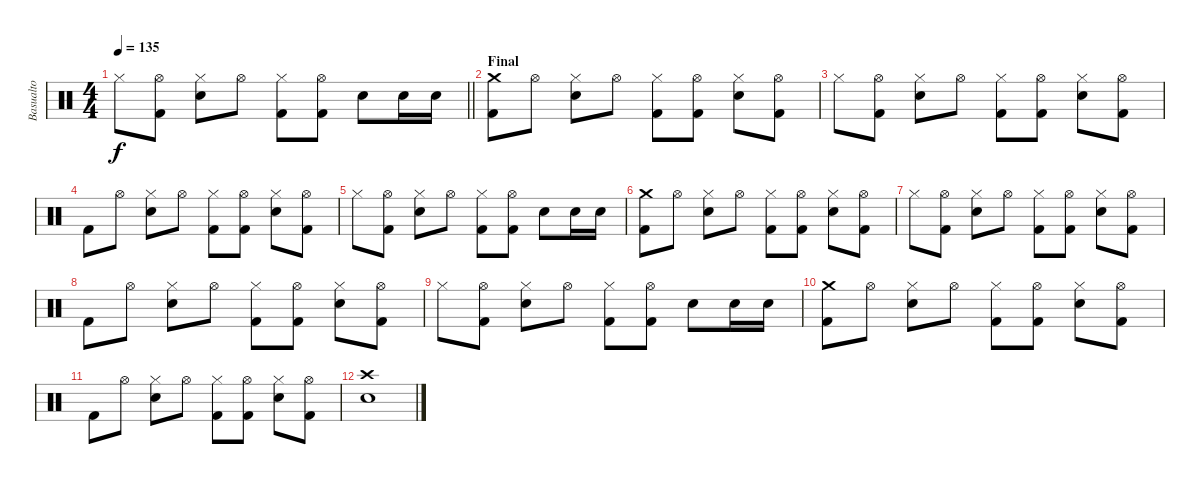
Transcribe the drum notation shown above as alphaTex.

\track ("Basualto" "Basualto") {instrument percussion}
\staff {score}
\articulation defaults
\ts (4 4)
\tempo 135
\clef neutral
\barLineRight lightlight
\ks c "Hi-Hat (closed)".8{dy f}
("Hi-Hat (open)" "Kick (hit) 2").8 ("Hi-Hat (closed)" "Snare (hit) 2").8 "Hi-Hat (open)".8 ("Hi-Hat (closed)" "Kick (hit) 2").8 ("Hi-Hat (open)" "Kick (hit) 2").8 "Snare (hit) 2".8 "Snare (hit) 2".16 "Snare (hit) 2".16 |
\section ("" "Final")
("Crash medium (hit)" "Kick (hit) 2").8 "Hi-Hat (open)".8 ("Hi-Hat (closed)" "Snare (hit) 2").8 "Hi-Hat (open)".8 ("Hi-Hat (closed)" "Kick (hit) 2").8 ("Hi-Hat (open)" "Kick (hit) 2").8 ("Hi-Hat (closed)" "Snare (hit) 2").8 ("Hi-Hat (open)" "Kick (hit) 2").8 |
"Hi-Hat (closed)".8 ("Hi-Hat (open)" "Kick (hit) 2").8 ("Hi-Hat (closed)" "Snare (hit) 2").8 "Hi-Hat (open)".8 ("Hi-Hat (closed)" "Kick (hit) 2").8 ("Hi-Hat (open)" "Kick (hit) 2").8 ("Hi-Hat (closed)" "Snare (hit) 2").8 ("Hi-Hat (open)" "Kick (hit) 2").8 |
"Kick (hit) 2".8 "Hi-Hat (open)".8 ("Hi-Hat (closed)" "Snare (hit) 2").8 "Hi-Hat (open)".8 ("Hi-Hat (closed)" "Kick (hit) 2").8 ("Hi-Hat (open)" "Kick (hit) 2").8 ("Hi-Hat (closed)" "Snare (hit) 2").8 ("Hi-Hat (open)" "Kick (hit) 2").8 |
"Hi-Hat (closed)".8 ("Hi-Hat (open)" "Kick (hit) 2").8 ("Hi-Hat (closed)" "Snare (hit) 2").8 "Hi-Hat (open)".8 ("Hi-Hat (closed)" "Kick (hit) 2").8 ("Hi-Hat (open)" "Kick (hit) 2").8 "Snare (hit) 2".8 "Snare (hit) 2".16 "Snare (hit) 2".16 |
("Crash medium (hit)" "Kick (hit) 2").8 "Hi-Hat (open)".8 ("Hi-Hat (closed)" "Snare (hit) 2").8 "Hi-Hat (open)".8 ("Hi-Hat (closed)" "Kick (hit) 2").8 ("Hi-Hat (open)" "Kick (hit) 2").8 ("Hi-Hat (closed)" "Snare (hit) 2").8 ("Hi-Hat (open)" "Kick (hit) 2").8 |
"Hi-Hat (closed)".8 ("Hi-Hat (open)" "Kick (hit) 2").8 ("Hi-Hat (closed)" "Snare (hit) 2").8 "Hi-Hat (open)".8 ("Hi-Hat (closed)" "Kick (hit) 2").8 ("Hi-Hat (open)" "Kick (hit) 2").8 ("Hi-Hat (closed)" "Snare (hit) 2").8 ("Hi-Hat (open)" "Kick (hit) 2").8 |
"Kick (hit) 2".8 "Hi-Hat (open)".8 ("Hi-Hat (closed)" "Snare (hit) 2").8 "Hi-Hat (open)".8 ("Hi-Hat (closed)" "Kick (hit) 2").8 ("Hi-Hat (open)" "Kick (hit) 2").8 ("Hi-Hat (closed)" "Snare (hit) 2").8 ("Hi-Hat (open)" "Kick (hit) 2").8 |
"Hi-Hat (closed)".8 ("Hi-Hat (open)" "Kick (hit) 2").8 ("Hi-Hat (closed)" "Snare (hit) 2").8 "Hi-Hat (open)".8 ("Hi-Hat (closed)" "Kick (hit) 2").8 ("Hi-Hat (open)" "Kick (hit) 2").8 "Snare (hit) 2".8 "Snare (hit) 2".16 "Snare (hit) 2".16 |
("Crash medium (hit)" "Kick (hit) 2").8 "Hi-Hat (open)".8 ("Hi-Hat (closed)" "Snare (hit) 2").8 "Hi-Hat (open)".8 ("Hi-Hat (closed)" "Kick (hit) 2").8 ("Hi-Hat (open)" "Kick (hit) 2").8 ("Hi-Hat (closed)" "Snare (hit) 2").8 ("Hi-Hat (open)" "Kick (hit) 2").8 |
"Kick (hit) 2".8 "Hi-Hat (open)".8 ("Hi-Hat (closed)" "Snare (hit) 2").8 "Hi-Hat (open)".8 ("Hi-Hat (closed)" "Kick (hit) 2").8 ("Hi-Hat (open)" "Kick (hit) 2").8 ("Hi-Hat (closed)" "Snare (hit) 2").8 ("Hi-Hat (open)" "Kick (hit) 2").8 |
("Snare (hit) 2" "Crash high (hit)").1
